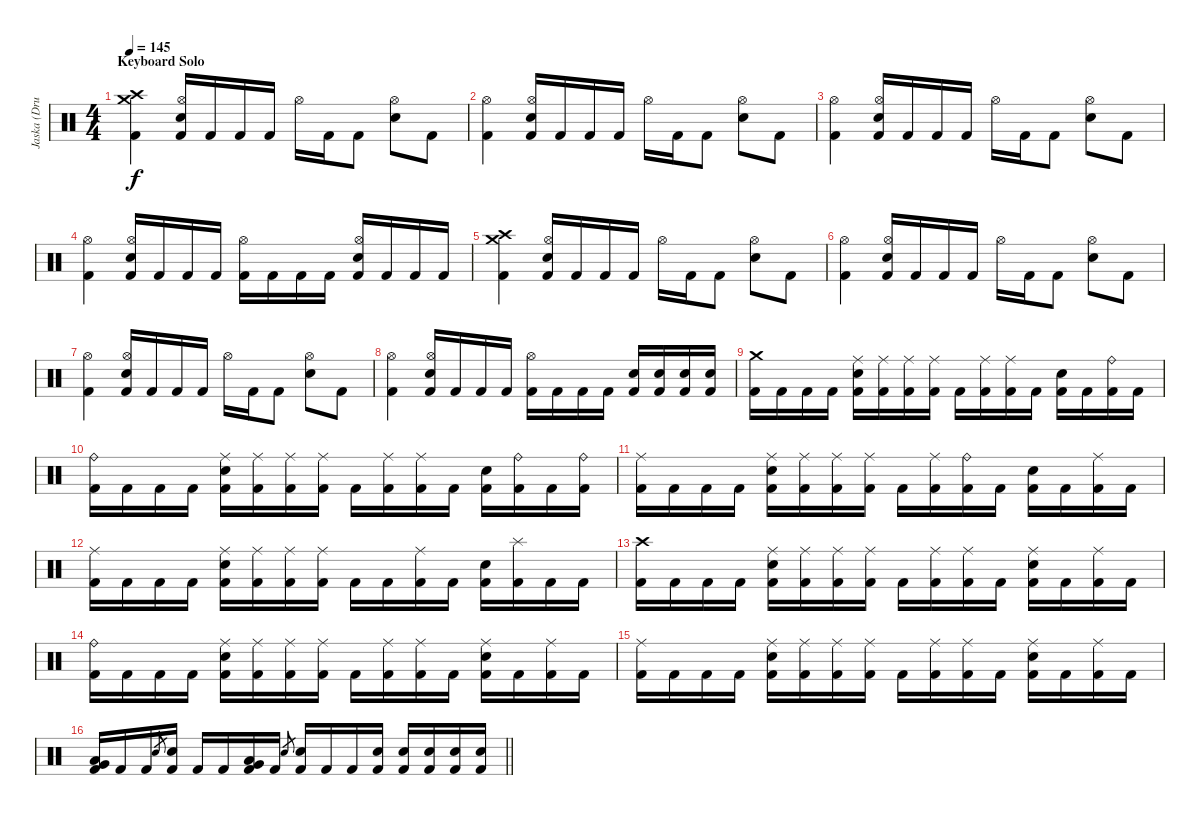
\track ("Jaska (Drums)" "Jaska (Dru") {instrument percussion}
\staff {score}
\articulation defaults
\ts (4 4)
\section ("" "Keyboard Solo")
\tempo 145
\clef neutral
\ks c
("Crash medium (hit)" "Crash high (hit)" "Kick (hit) 2").4{dy f volume 16 balance 8} ("Hi-Hat (open)" "Electric Snare (hit)" "Kick (hit) 2").16 "Kick (hit) 2".16 "Kick (hit) 2".16 "Kick (hit) 2".16 "Hi-Hat (open)".16 "Kick (hit) 2".16 "Kick (hit) 2".8 ("Hi-Hat (open)" "Electric Snare (hit)").8 "Kick (hit) 2".8 |
("Hi-Hat (open)" "Kick (hit) 2").4 ("Hi-Hat (open)" "Electric Snare (hit)" "Kick (hit) 2").16 "Kick (hit) 2".16 "Kick (hit) 2".16 "Kick (hit) 2".16 "Hi-Hat (open)".16 "Kick (hit) 2".16 "Kick (hit) 2".8 ("Hi-Hat (open)" "Electric Snare (hit)").8 "Kick (hit) 2".8 |
("Hi-Hat (open)" "Kick (hit) 2").4 ("Hi-Hat (open)" "Electric Snare (hit)" "Kick (hit) 2").16 "Kick (hit) 2".16 "Kick (hit) 2".16 "Kick (hit) 2".16 "Hi-Hat (open)".16 "Kick (hit) 2".16 "Kick (hit) 2".8 ("Hi-Hat (open)" "Electric Snare (hit)").8 "Kick (hit) 2".8 |
("Hi-Hat (open)" "Kick (hit) 2").4 ("Hi-Hat (open)" "Electric Snare (hit)" "Kick (hit) 2").16 "Kick (hit) 2".16 "Kick (hit) 2".16 "Kick (hit) 2".16 ("Hi-Hat (open)" "Kick (hit) 2").16 "Kick (hit) 2".16 "Kick (hit) 2".16 "Kick (hit) 2".16 ("Hi-Hat (open)" "Electric Snare (hit)" "Kick (hit) 2").16 "Kick (hit) 2".16 "Kick (hit) 2".16 "Kick (hit) 2".16 |
("Crash medium (hit)" "Crash high (hit)" "Kick (hit) 2").4 ("Hi-Hat (open)" "Electric Snare (hit)" "Kick (hit) 2").16 "Kick (hit) 2".16 "Kick (hit) 2".16 "Kick (hit) 2".16 "Hi-Hat (open)".16 "Kick (hit) 2".16 "Kick (hit) 2".8 ("Hi-Hat (open)" "Electric Snare (hit)").8 "Kick (hit) 2".8 |
("Hi-Hat (open)" "Kick (hit) 2").4 ("Hi-Hat (open)" "Electric Snare (hit)" "Kick (hit) 2").16 "Kick (hit) 2".16 "Kick (hit) 2".16 "Kick (hit) 2".16 "Hi-Hat (open)".16 "Kick (hit) 2".16 "Kick (hit) 2".8 ("Hi-Hat (open)" "Electric Snare (hit)").8 "Kick (hit) 2".8 |
("Hi-Hat (open)" "Kick (hit) 2").4 ("Hi-Hat (open)" "Electric Snare (hit)" "Kick (hit) 2").16 "Kick (hit) 2".16 "Kick (hit) 2".16 "Kick (hit) 2".16 "Hi-Hat (open)".16 "Kick (hit) 2".16 "Kick (hit) 2".8 ("Hi-Hat (open)" "Electric Snare (hit)").8 "Kick (hit) 2".8 |
("Hi-Hat (open)" "Kick (hit) 2").4 ("Hi-Hat (open)" "Electric Snare (hit)" "Kick (hit) 2").16 "Kick (hit) 2".16 "Kick (hit) 2".16 "Kick (hit) 2".16 ("Hi-Hat (open)" "Kick (hit) 2").16 "Kick (hit) 2".16 "Kick (hit) 2".16 "Kick (hit) 2".16 ("Electric Snare (hit)" "Kick (hit) 2").16 ("Electric Snare (hit)" "Kick (hit) 2").16 ("Electric Snare (hit)" "Kick (hit) 2").16 ("Electric Snare (hit)" "Kick (hit) 2").16 |
("Crash medium (hit)" "Kick (hit) 2").16 "Kick (hit) 2".16 "Kick (hit) 2".16 "Kick (hit) 2".16 ("Ride (middle)" "Electric Snare (hit)" "Kick (hit) 2").16 ("Ride (middle)" "Kick (hit) 2").16 ("Ride (middle)" "Kick (hit) 2").16 ("Ride (middle)" "Kick (hit) 2").16 "Kick (hit) 2".16 ("Ride (middle)" "Kick (hit) 2").16 ("Ride (middle)" "Kick (hit) 2").16 "Kick (hit) 2".16 ("Electric Snare (hit)" "Kick (hit) 2").16 "Kick (hit) 2".16 ("Ride (bell)" "Kick (hit) 2").16 "Kick (hit) 2".16 |
("Ride (bell)" "Kick (hit) 2").16 "Kick (hit) 2".16 "Kick (hit) 2".16 "Kick (hit) 2".16 ("Ride (middle)" "Electric Snare (hit)" "Kick (hit) 2").16 ("Ride (middle)" "Kick (hit) 2").16 ("Ride (middle)" "Kick (hit) 2").16 ("Ride (middle)" "Kick (hit) 2").16 "Kick (hit) 2".16 ("Ride (middle)" "Kick (hit) 2").16 ("Ride (middle)" "Kick (hit) 2").16 "Kick (hit) 2".16 ("Electric Snare (hit)" "Kick (hit) 2").16 ("Ride (bell)" "Kick (hit) 2").16 "Kick (hit) 2".16 ("Ride (bell)" "Kick (hit) 2").16 |
("Ride (middle)" "Kick (hit) 2").16 "Kick (hit) 2".16 "Kick (hit) 2".16 "Kick (hit) 2".16 ("Ride (middle)" "Electric Snare (hit)" "Kick (hit) 2").16 ("Ride (middle)" "Kick (hit) 2").16 ("Ride (middle)" "Kick (hit) 2").16 ("Ride (middle)" "Kick (hit) 2").16 "Kick (hit) 2".16 ("Ride (middle)" "Kick (hit) 2").16 ("Ride (bell)" "Kick (hit) 2").16 "Kick (hit) 2".16 ("Electric Snare (hit)" "Kick (hit) 2").16 "Kick (hit) 2".16 ("Ride (middle)" "Kick (hit) 2").16 "Kick (hit) 2".16 |
("Ride (middle)" "Kick (hit) 2").16 "Kick (hit) 2".16 "Kick (hit) 2".16 "Kick (hit) 2".16 ("Ride (middle)" "Electric Snare (hit)" "Kick (hit) 2").16 ("Ride (middle)" "Kick (hit) 2").16 ("Ride (middle)" "Kick (hit) 2").16 ("Ride (middle)" "Kick (hit) 2").16 "Kick (hit) 2".16 "Kick (hit) 2".16 ("Ride (middle)" "Kick (hit) 2").16 "Kick (hit) 2".16 ("Electric Snare (hit)" "Kick (hit) 2").16 ("Splash (hit)" "Kick (hit) 2").16 "Kick (hit) 2".16 "Kick (hit) 2".16 |
("Crash high (hit)" "Kick (hit) 2").16 "Kick (hit) 2".16 "Kick (hit) 2".16 "Kick (hit) 2".16 ("Ride (middle)" "Electric Snare (hit)" "Kick (hit) 2").16 ("Ride (middle)" "Kick (hit) 2").16 ("Ride (middle)" "Kick (hit) 2").16 ("Ride (middle)" "Kick (hit) 2").16 "Kick (hit) 2".16 ("Ride (middle)" "Kick (hit) 2").16 ("Ride (middle)" "Kick (hit) 2").16 "Kick (hit) 2".16 ("Ride (middle)" "Electric Snare (hit)" "Kick (hit) 2").16 "Kick (hit) 2".16 ("Ride (middle)" "Kick (hit) 2").16 "Kick (hit) 2".16 |
("Ride (bell)" "Kick (hit) 2").16 "Kick (hit) 2".16 "Kick (hit) 2".16 "Kick (hit) 2".16 ("Ride (middle)" "Electric Snare (hit)" "Kick (hit) 2").16 ("Ride (middle)" "Kick (hit) 2").16 ("Ride (middle)" "Kick (hit) 2").16 ("Ride (middle)" "Kick (hit) 2").16 "Kick (hit) 2".16 ("Ride (middle)" "Kick (hit) 2").16 ("Ride (middle)" "Kick (hit) 2").16 "Kick (hit) 2".16 ("Ride (middle)" "Electric Snare (hit)" "Kick (hit) 2").16 "Kick (hit) 2".16 ("Ride (middle)" "Kick (hit) 2").16 "Kick (hit) 2".16 |
("Ride (middle)" "Kick (hit) 2").16 "Kick (hit) 2".16 "Kick (hit) 2".16 "Kick (hit) 2".16 ("Ride (middle)" "Electric Snare (hit)" "Kick (hit) 2").16 ("Ride (middle)" "Kick (hit) 2").16 ("Ride (middle)" "Kick (hit) 2").16 ("Ride (middle)" "Kick (hit) 2").16 "Kick (hit) 2".16 ("Ride (middle)" "Kick (hit) 2").16 ("Ride (middle)" "Kick (hit) 2").16 "Kick (hit) 2".16 ("Ride (middle)" "Electric Snare (hit)" "Kick (hit) 2").16 "Kick (hit) 2".16 ("Ride (middle)" "Kick (hit) 2").16 "Kick (hit) 2".16 |
\barLineRight lightlight
("Low Tom (hit)" "Very Low Tom (hit)" "Kick (hit) 2").16 "Kick (hit) 2".16 "Kick (hit) 2".16 "Electric Snare (hit)".8{gr} ("Electric Snare (hit)" "Kick (hit) 2").16 "Kick (hit) 2".16 "Kick (hit) 2".16 ("Low Tom (hit)" "Very Low Tom (hit)" "Kick (hit) 2").16 "Kick (hit) 2".16 "Electric Snare (hit)".8{gr} ("Electric Snare (hit)" "Kick (hit) 2").16 "Kick (hit) 2".16 "Kick (hit) 2".16 ("Electric Snare (hit)" "Kick (hit) 2").16 ("Electric Snare (hit)" "Kick (hit) 2").16 ("Electric Snare (hit)" "Kick (hit) 2").16 ("Electric Snare (hit)" "Kick (hit) 2").16 ("Electric Snare (hit)" "Kick (hit) 2").16
